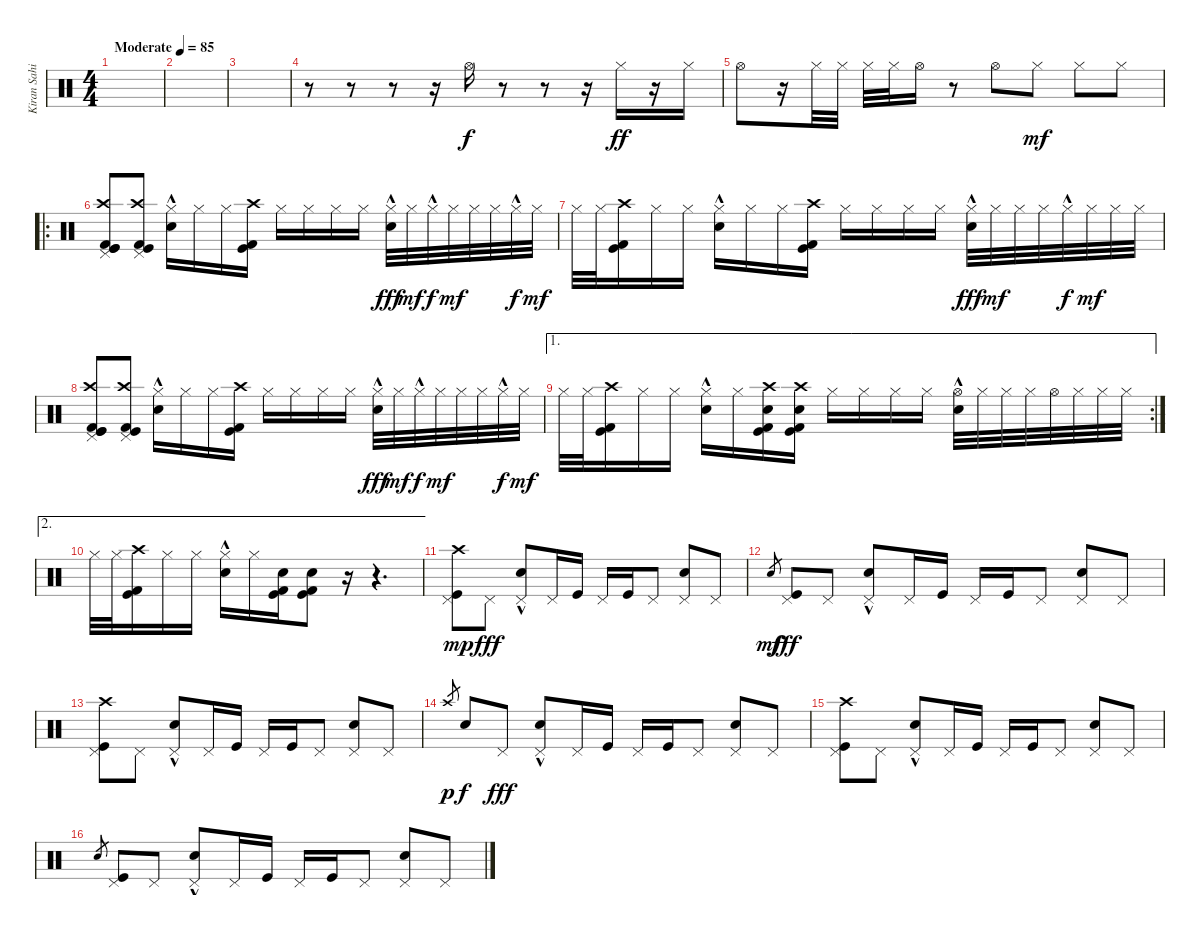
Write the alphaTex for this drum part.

\track ("Kiran Sahi - Drums" "Kiran Sahi") {instrument percussion}
\staff {score}
\articulation defaults
\ts (4 4)
\tempo (85 "Moderate")
\clef neutral
\ks c
|
|
|
r.8 r.8 r.8 r.16 "Hi-Hat (open)".16 r.8 r.8 r.16 "Hi-Hat (closed)".16{dy ff} r.16 "Hi-Hat (closed)".16 |
"Hi-Hat (open)".8 r.16 "Hi-Hat (closed)".32 "Hi-Hat (closed)".32 "Hi-Hat (closed)".32 "Hi-Hat (closed)".32 "Hi-Hat (open)".16 r.8 "Hi-Hat (open)".8 "Hi-Hat (closed)".8{dy mf} "Hi-Hat (closed)".8 "Hi-Hat (closed)".8 |
\ro
("Kick (hit)" "Pedal Hi-Hat (hit)" "Crash high (hit)" "Kick (hit)" "Kick (hit) 2").8 ("Kick (hit)" "Pedal Hi-Hat (hit)" "Crash high (hit)" "Kick (hit) 2").8 ("Snare (hit) 2"{hac} "Hi-Hat (closed)").16 "Hi-Hat (closed)".16 "Hi-Hat (closed)".16 ("Kick (hit)" "Crash high (hit)" "Kick (hit) 2").16 "Hi-Hat (closed)".16 "Hi-Hat (closed)".16 "Hi-Hat (closed)".16 "Hi-Hat (closed)".16 ("Hi-Hat (closed)" "Snare (hit) 2"{hac}).32{dy fff} "Hi-Hat (closed)".32{dy mf} "Hi-Hat (closed)"{hac}.32{dy f} "Hi-Hat (closed)".32{dy mf} "Hi-Hat (closed)".32 "Hi-Hat (closed)".32 "Hi-Hat (closed)"{hac}.32{dy f} "Hi-Hat (closed)".32{dy mf} |
"Hi-Hat (closed)".32 "Hi-Hat (closed)".32 ("Kick (hit)" "Crash high (hit)" "Kick (hit) 2").16 "Hi-Hat (closed)".16 "Hi-Hat (closed)".16 ("Snare (hit) 2"{hac} "Hi-Hat (closed)").16 "Hi-Hat (closed)".16 "Hi-Hat (closed)".16 ("Kick (hit)" "Crash high (hit)" "Kick (hit) 2").16 "Hi-Hat (closed)".16 "Hi-Hat (closed)".16 "Hi-Hat (closed)".16 "Hi-Hat (closed)".16 ("Snare (hit) 2"{hac} "Hi-Hat (closed)"{hac}).32{dy fff} "Hi-Hat (closed)".32{dy mf} "Hi-Hat (closed)".32 "Hi-Hat (closed)".32 "Hi-Hat (closed)"{hac}.32{dy f} "Hi-Hat (closed)".32{dy mf} "Hi-Hat (closed)".32 "Hi-Hat (closed)".32 |
("Kick (hit)" "Pedal Hi-Hat (hit)" "Crash high (hit)" "Kick (hit)" "Kick (hit) 2").8 ("Kick (hit)" "Pedal Hi-Hat (hit)" "Crash high (hit)" "Kick (hit) 2").8 ("Snare (hit) 2"{hac} "Hi-Hat (closed)").16 "Hi-Hat (closed)".16 "Hi-Hat (closed)".16 ("Kick (hit)" "Crash high (hit)" "Kick (hit) 2").16 "Hi-Hat (closed)".16 "Hi-Hat (closed)".16 "Hi-Hat (closed)".16 "Hi-Hat (closed)".16 ("Hi-Hat (closed)" "Snare (hit) 2"{hac}).32{dy fff} "Hi-Hat (closed)".32{dy mf} "Hi-Hat (closed)"{hac}.32{dy f} "Hi-Hat (closed)".32{dy mf} "Hi-Hat (closed)".32 "Hi-Hat (closed)".32 "Hi-Hat (closed)"{hac}.32{dy f} "Hi-Hat (closed)".32{dy mf} |
\ae 1
\rc 2 "Hi-Hat (closed)".32 "Hi-Hat (closed)".32
("Kick (hit)" "Crash high (hit)" "Kick (hit) 2").16 "Hi-Hat (closed)".16 "Hi-Hat (closed)".16 ("Snare (hit) 2"{hac} "Hi-Hat (closed)").16 "Hi-Hat (closed)".16 ("Crash high (hit)" "Snare (hit) 2" "Kick (hit)" "Kick (hit) 2").16 ("Kick (hit)" "Snare (hit) 2" "Crash high (hit)" "Kick (hit) 2").16 "Hi-Hat (closed)".16 "Hi-Hat (closed)".16 "Hi-Hat (closed)".16 "Hi-Hat (closed)".16 ("Snare (hit) 2"{hac} "Hi-Hat (open)").32 "Hi-Hat (closed)".32 "Hi-Hat (closed)".32 "Hi-Hat (closed)".32 "Hi-Hat (open)".32 "Hi-Hat (closed)".32 "Hi-Hat (closed)".32 "Hi-Hat (closed)".32 |
\ae 2 "Hi-Hat (closed)".32 "Hi-Hat (closed)".32
("Kick (hit)" "Crash high (hit)" "Kick (hit) 2").16 "Hi-Hat (closed)".16 "Hi-Hat (closed)".16 ("Snare (hit) 2"{hac} "Hi-Hat (closed)").16 "Hi-Hat (closed)".16 ("Snare (hit) 2" "Kick (hit)" "Kick (hit) 2").16 ("Kick (hit)" "Snare (hit) 2" "Kick (hit) 2").8 r.16 r.4{d} |
("Kick (hit)" "Pedal Hi-Hat (hit)" "Crash high (hit)").8{dy mp} "Pedal Hi-Hat (hit)".8{dy fff} ("Pedal Hi-Hat (hit)" "Snare (hit) 2"{hac}).8 "Pedal Hi-Hat (hit)".16 "Kick (hit)".16 "Pedal Hi-Hat (hit)".16 "Kick (hit)".16 "Pedal Hi-Hat (hit)".8 ("Snare (hit) 2" "Pedal Hi-Hat (hit)").8 "Pedal Hi-Hat (hit)".8 |
"Snare (hit) 2".8{gr dy mf} ("Kick (hit)" "Pedal Hi-Hat (hit)").8{dy fff} "Pedal Hi-Hat (hit)".8 ("Pedal Hi-Hat (hit)" "Snare (hit) 2"{hac}).8 "Pedal Hi-Hat (hit)".16 "Kick (hit)".16 "Pedal Hi-Hat (hit)".16 "Kick (hit)".16 "Pedal Hi-Hat (hit)".8 ("Snare (hit) 2" "Pedal Hi-Hat (hit)").8 "Pedal Hi-Hat (hit)".8 |
("Kick (hit)" "Pedal Hi-Hat (hit)" "Crash high (hit)").8 "Pedal Hi-Hat (hit)".8 ("Pedal Hi-Hat (hit)" "Snare (hit) 2"{hac}).8 "Pedal Hi-Hat (hit)".16 "Kick (hit)".16 "Pedal Hi-Hat (hit)".16 "Kick (hit)".16 "Pedal Hi-Hat (hit)".8 ("Snare (hit) 2" "Pedal Hi-Hat (hit)").8 "Pedal Hi-Hat (hit)".8 |
"Crash high (hit)".8{gr dy p} "Snare (hit) 2".8{dy f} "Pedal Hi-Hat (hit)".8{dy fff} ("Pedal Hi-Hat (hit)" "Snare (hit) 2"{hac}).8 "Pedal Hi-Hat (hit)".16 "Kick (hit)".16 "Pedal Hi-Hat (hit)".16 "Kick (hit)".16 "Pedal Hi-Hat (hit)".8 ("Snare (hit) 2" "Pedal Hi-Hat (hit)").8 "Pedal Hi-Hat (hit)".8 |
("Kick (hit)" "Pedal Hi-Hat (hit)" "Crash high (hit)").8 "Pedal Hi-Hat (hit)".8 ("Pedal Hi-Hat (hit)" "Snare (hit) 2"{hac}).8 "Pedal Hi-Hat (hit)".16 "Kick (hit)".16 "Pedal Hi-Hat (hit)".16 "Kick (hit)".16 "Pedal Hi-Hat (hit)".8 ("Snare (hit) 2" "Pedal Hi-Hat (hit)").8 "Pedal Hi-Hat (hit)".8 |
"Snare (hit) 2".8{gr} ("Kick (hit)" "Pedal Hi-Hat (hit)").8 "Pedal Hi-Hat (hit)".8 ("Pedal Hi-Hat (hit)" "Snare (hit) 2"{hac}).8 "Pedal Hi-Hat (hit)".16 "Kick (hit)".16 "Pedal Hi-Hat (hit)".16 "Kick (hit)".16 "Pedal Hi-Hat (hit)".8 ("Snare (hit) 2" "Pedal Hi-Hat (hit)").8 "Pedal Hi-Hat (hit)".8
